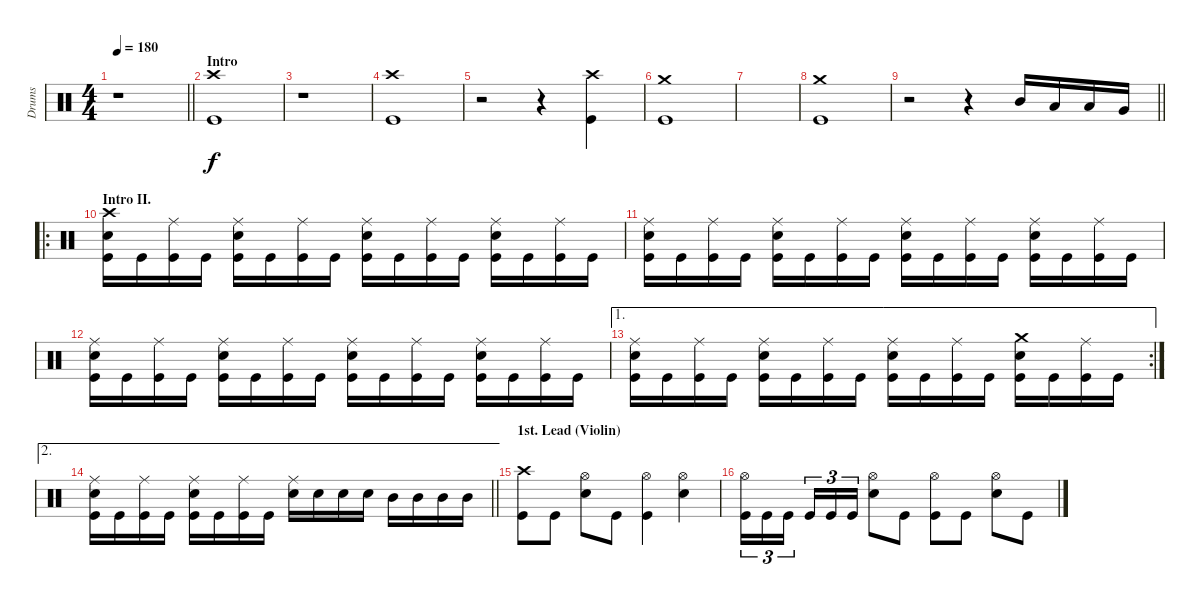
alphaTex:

\track ("Drums" "Drums") {instrument percussion}
\staff {score}
\articulation defaults
\ts (4 4)
\tempo 180
\clef neutral
\barLineRight lightlight
\ks c
r.1{dy f} |
\section ("" "Intro")
("Crash high (hit)" "Kick (hit)").1 |
r.1 |
("Crash high (hit)" "Kick (hit)").1 |
r.2 r.4 ("Crash high (hit)" "Kick (hit)").4 |
("Crash medium (hit)" "Kick (hit)").1 |
|
("Crash medium (hit)" "Kick (hit)").1 |
\barLineRight lightlight
r.2 r.4 "Mid Tom (hit)".16 "Low Tom (hit)".16 "Low Tom (hit)".16 "Very Low Tom (hit)".16 |
\ro
\section ("" "Intro II.")
("Crash high (hit)" "Electric Snare (hit)" "Kick (hit)").16 "Kick (hit)".16 ("Ride (middle)" "Kick (hit)").16 "Kick (hit)".16 ("Ride (middle)" "Electric Snare (hit)" "Kick (hit)").16 "Kick (hit)".16 ("Ride (middle)" "Kick (hit)").16 "Kick (hit)".16 ("Ride (middle)" "Electric Snare (hit)" "Kick (hit)").16 "Kick (hit)".16 ("Ride (middle)" "Kick (hit)").16 "Kick (hit)".16 ("Ride (middle)" "Electric Snare (hit)" "Kick (hit)").16 "Kick (hit)".16 ("Ride (middle)" "Kick (hit)").16 "Kick (hit)".16 |
("Ride (middle)" "Electric Snare (hit)" "Kick (hit)").16 "Kick (hit)".16 ("Ride (middle)" "Kick (hit)").16 "Kick (hit)".16 ("Ride (middle)" "Electric Snare (hit)" "Kick (hit)").16 "Kick (hit)".16 ("Ride (middle)" "Kick (hit)").16 "Kick (hit)".16 ("Ride (middle)" "Electric Snare (hit)" "Kick (hit)").16 "Kick (hit)".16 ("Ride (middle)" "Kick (hit)").16 "Kick (hit)".16 ("Ride (middle)" "Electric Snare (hit)" "Kick (hit)").16 "Kick (hit)".16 ("Ride (middle)" "Kick (hit)").16 "Kick (hit)".16 |
("Ride (middle)" "Electric Snare (hit)" "Kick (hit)").16 "Kick (hit)".16 ("Ride (middle)" "Kick (hit)").16 "Kick (hit)".16 ("Ride (middle)" "Electric Snare (hit)" "Kick (hit)").16 "Kick (hit)".16 ("Ride (middle)" "Kick (hit)").16 "Kick (hit)".16 ("Ride (middle)" "Electric Snare (hit)" "Kick (hit)").16 "Kick (hit)".16 ("Ride (middle)" "Kick (hit)").16 "Kick (hit)".16 ("Ride (middle)" "Electric Snare (hit)" "Kick (hit)").16 "Kick (hit)".16 ("Ride (middle)" "Kick (hit)").16 "Kick (hit)".16 |
\ae 1
\rc 2
("Ride (middle)" "Electric Snare (hit)" "Kick (hit)").16 "Kick (hit)".16 ("Ride (middle)" "Kick (hit)").16 "Kick (hit)".16 ("Ride (middle)" "Electric Snare (hit)" "Kick (hit)").16 "Kick (hit)".16 ("Ride (middle)" "Kick (hit)").16 "Kick (hit)".16 ("Ride (middle)" "Electric Snare (hit)" "Kick (hit)").16 "Kick (hit)".16 ("Ride (middle)" "Kick (hit)").16 "Kick (hit)".16 ("Crash medium (hit)" "Electric Snare (hit)" "Kick (hit)").16 "Kick (hit)".16 ("Ride (middle)" "Kick (hit)").16 "Kick (hit)".16 |
\ae 2
\barLineRight lightlight
("Ride (middle)" "Electric Snare (hit)" "Kick (hit)").16 "Kick (hit)".16 ("Ride (middle)" "Kick (hit)").16 "Kick (hit)".16 ("Ride (middle)" "Electric Snare (hit)" "Kick (hit)").16 "Kick (hit)".16 ("Ride (middle)" "Kick (hit)").16 "Kick (hit)".16 ("Ride (middle)" "Electric Snare (hit)").16 "Electric Snare (hit)".16 "Electric Snare (hit)".16 "Electric Snare (hit)".16 "Mid Tom (hit)".16 "Mid Tom (hit)".16 "Mid Tom (hit)".16 "Mid Tom (hit)".16 |
\section ("" "1st. Lead (Violin)")
("Crash high (hit)" "Kick (hit)").8 "Kick (hit)".8 ("Hi-Hat (open)" "Electric Snare (hit)").8 "Kick (hit)".8 ("Hi-Hat (open)" "Kick (hit)").4 ("Hi-Hat (open)" "Electric Snare (hit)").4 |
("Hi-Hat (open)" "Kick (hit)").16{tu (3 2)} "Kick (hit)".16{tu (3 2)} "Kick (hit)".16{tu (3 2) beam splitsecondary} "Kick (hit)".16{tu (3 2)} "Kick (hit)".16{tu (3 2)} "Kick (hit)".16{tu (3 2)} ("Hi-Hat (open)" "Electric Snare (hit)").8 "Kick (hit)".8 ("Hi-Hat (open)" "Kick (hit)").8 "Kick (hit)".8 ("Hi-Hat (open)" "Electric Snare (hit)").8 "Kick (hit)".8
